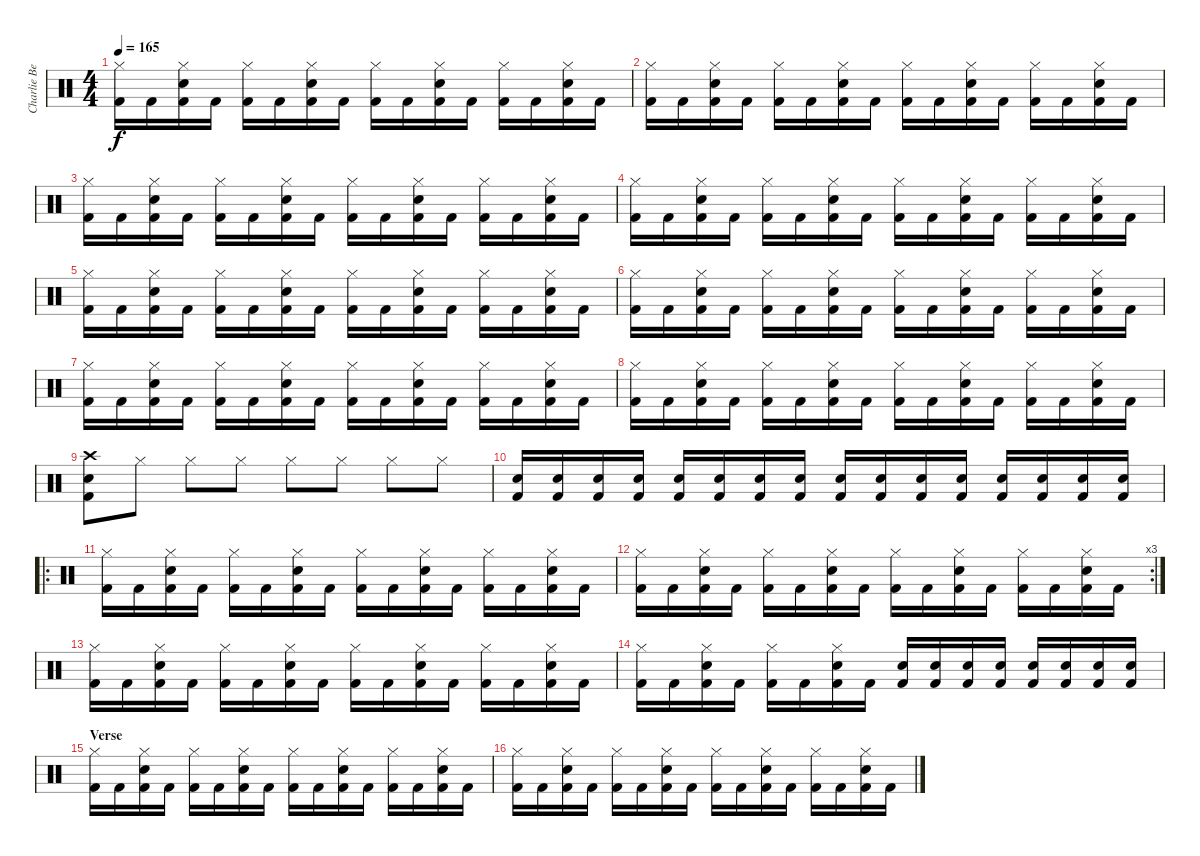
\track ("Charlie Benante" "Charlie Be") {instrument percussion}
\staff {score}
\articulation defaults
\ts (4 4)
\tempo 165
\clef neutral
\ks c
("Kick (hit) 2" "Hi-Hat (closed)").16{dy f} "Kick (hit) 2".16 ("Kick (hit) 2" "Hi-Hat (closed)" "Electric Snare (hit)").16 "Kick (hit) 2".16 ("Kick (hit) 2" "Hi-Hat (closed)").16 "Kick (hit) 2".16 ("Kick (hit) 2" "Hi-Hat (closed)" "Electric Snare (hit)").16 "Kick (hit) 2".16 ("Kick (hit) 2" "Hi-Hat (closed)").16 "Kick (hit) 2".16 ("Kick (hit) 2" "Hi-Hat (closed)" "Electric Snare (hit)").16 "Kick (hit) 2".16 ("Kick (hit) 2" "Hi-Hat (closed)").16 "Kick (hit) 2".16 ("Kick (hit) 2" "Hi-Hat (closed)" "Electric Snare (hit)").16 "Kick (hit) 2".16 |
("Kick (hit) 2" "Hi-Hat (closed)").16 "Kick (hit) 2".16 ("Kick (hit) 2" "Hi-Hat (closed)" "Electric Snare (hit)").16 "Kick (hit) 2".16 ("Kick (hit) 2" "Hi-Hat (closed)").16 "Kick (hit) 2".16 ("Kick (hit) 2" "Hi-Hat (closed)" "Electric Snare (hit)").16 "Kick (hit) 2".16 ("Kick (hit) 2" "Hi-Hat (closed)").16 "Kick (hit) 2".16 ("Kick (hit) 2" "Hi-Hat (closed)" "Electric Snare (hit)").16 "Kick (hit) 2".16 ("Kick (hit) 2" "Hi-Hat (closed)").16 "Kick (hit) 2".16 ("Kick (hit) 2" "Hi-Hat (closed)" "Electric Snare (hit)").16 "Kick (hit) 2".16 |
("Kick (hit) 2" "Hi-Hat (closed)").16 "Kick (hit) 2".16 ("Kick (hit) 2" "Hi-Hat (closed)" "Electric Snare (hit)").16 "Kick (hit) 2".16 ("Kick (hit) 2" "Hi-Hat (closed)").16 "Kick (hit) 2".16 ("Kick (hit) 2" "Hi-Hat (closed)" "Electric Snare (hit)").16 "Kick (hit) 2".16 ("Kick (hit) 2" "Hi-Hat (closed)").16 "Kick (hit) 2".16 ("Kick (hit) 2" "Hi-Hat (closed)" "Electric Snare (hit)").16 "Kick (hit) 2".16 ("Kick (hit) 2" "Hi-Hat (closed)").16 "Kick (hit) 2".16 ("Kick (hit) 2" "Hi-Hat (closed)" "Electric Snare (hit)").16 "Kick (hit) 2".16 |
("Kick (hit) 2" "Hi-Hat (closed)").16 "Kick (hit) 2".16 ("Kick (hit) 2" "Hi-Hat (closed)" "Electric Snare (hit)").16 "Kick (hit) 2".16 ("Kick (hit) 2" "Hi-Hat (closed)").16 "Kick (hit) 2".16 ("Kick (hit) 2" "Hi-Hat (closed)" "Electric Snare (hit)").16 "Kick (hit) 2".16 ("Kick (hit) 2" "Hi-Hat (closed)").16 "Kick (hit) 2".16 ("Kick (hit) 2" "Hi-Hat (closed)" "Electric Snare (hit)").16 "Kick (hit) 2".16 ("Kick (hit) 2" "Hi-Hat (closed)").16 "Kick (hit) 2".16 ("Kick (hit) 2" "Hi-Hat (closed)" "Electric Snare (hit)").16 "Kick (hit) 2".16 |
("Kick (hit) 2" "Hi-Hat (closed)").16 "Kick (hit) 2".16 ("Kick (hit) 2" "Hi-Hat (closed)" "Electric Snare (hit)").16 "Kick (hit) 2".16 ("Kick (hit) 2" "Hi-Hat (closed)").16 "Kick (hit) 2".16 ("Kick (hit) 2" "Hi-Hat (closed)" "Electric Snare (hit)").16 "Kick (hit) 2".16 ("Kick (hit) 2" "Hi-Hat (closed)").16 "Kick (hit) 2".16 ("Kick (hit) 2" "Hi-Hat (closed)" "Electric Snare (hit)").16 "Kick (hit) 2".16 ("Kick (hit) 2" "Hi-Hat (closed)").16 "Kick (hit) 2".16 ("Kick (hit) 2" "Hi-Hat (closed)" "Electric Snare (hit)").16 "Kick (hit) 2".16 |
("Kick (hit) 2" "Hi-Hat (closed)").16 "Kick (hit) 2".16 ("Kick (hit) 2" "Hi-Hat (closed)" "Electric Snare (hit)").16 "Kick (hit) 2".16 ("Kick (hit) 2" "Hi-Hat (closed)").16 "Kick (hit) 2".16 ("Kick (hit) 2" "Hi-Hat (closed)" "Electric Snare (hit)").16 "Kick (hit) 2".16 ("Kick (hit) 2" "Hi-Hat (closed)").16 "Kick (hit) 2".16 ("Kick (hit) 2" "Hi-Hat (closed)" "Electric Snare (hit)").16 "Kick (hit) 2".16 ("Kick (hit) 2" "Hi-Hat (closed)").16 "Kick (hit) 2".16 ("Kick (hit) 2" "Hi-Hat (closed)" "Electric Snare (hit)").16 "Kick (hit) 2".16 |
("Kick (hit) 2" "Hi-Hat (closed)").16 "Kick (hit) 2".16 ("Kick (hit) 2" "Hi-Hat (closed)" "Electric Snare (hit)").16 "Kick (hit) 2".16 ("Kick (hit) 2" "Hi-Hat (closed)").16 "Kick (hit) 2".16 ("Kick (hit) 2" "Hi-Hat (closed)" "Electric Snare (hit)").16 "Kick (hit) 2".16 ("Kick (hit) 2" "Hi-Hat (closed)").16 "Kick (hit) 2".16 ("Kick (hit) 2" "Hi-Hat (closed)" "Electric Snare (hit)").16 "Kick (hit) 2".16 ("Kick (hit) 2" "Hi-Hat (closed)").16 "Kick (hit) 2".16 ("Kick (hit) 2" "Hi-Hat (closed)" "Electric Snare (hit)").16 "Kick (hit) 2".16 |
("Kick (hit) 2" "Hi-Hat (closed)").16 "Kick (hit) 2".16 ("Kick (hit) 2" "Hi-Hat (closed)" "Electric Snare (hit)").16 "Kick (hit) 2".16 ("Kick (hit) 2" "Hi-Hat (closed)").16 "Kick (hit) 2".16 ("Kick (hit) 2" "Hi-Hat (closed)" "Electric Snare (hit)").16 "Kick (hit) 2".16 ("Kick (hit) 2" "Hi-Hat (closed)").16 "Kick (hit) 2".16 ("Kick (hit) 2" "Hi-Hat (closed)" "Electric Snare (hit)").16 "Kick (hit) 2".16 ("Kick (hit) 2" "Hi-Hat (closed)").16 "Kick (hit) 2".16 ("Kick (hit) 2" "Hi-Hat (closed)" "Electric Snare (hit)").16 "Kick (hit) 2".16 |
("Crash high (hit)" "Kick (hit) 2" "Electric Snare (hit)").8 "Hi-Hat (closed)".8 "Hi-Hat (closed)".8 "Hi-Hat (closed)".8 "Hi-Hat (closed)".8 "Hi-Hat (closed)".8 "Hi-Hat (closed)".8 "Hi-Hat (closed)".8 |
("Electric Snare (hit)" "Kick (hit) 2").16 ("Electric Snare (hit)" "Kick (hit) 2").16 ("Electric Snare (hit)" "Kick (hit) 2").16 ("Electric Snare (hit)" "Kick (hit) 2").16 ("Electric Snare (hit)" "Kick (hit) 2").16 ("Electric Snare (hit)" "Kick (hit) 2").16 ("Electric Snare (hit)" "Kick (hit) 2").16 ("Electric Snare (hit)" "Kick (hit) 2").16 ("Electric Snare (hit)" "Kick (hit) 2").16 ("Electric Snare (hit)" "Kick (hit) 2").16 ("Electric Snare (hit)" "Kick (hit) 2").16 ("Electric Snare (hit)" "Kick (hit) 2").16 ("Electric Snare (hit)" "Kick (hit) 2").16 ("Electric Snare (hit)" "Kick (hit) 2").16 ("Electric Snare (hit)" "Kick (hit) 2").16 ("Electric Snare (hit)" "Kick (hit) 2").16 |
\ro
("Kick (hit) 2" "Hi-Hat (closed)").16 "Kick (hit) 2".16 ("Kick (hit) 2" "Hi-Hat (closed)" "Electric Snare (hit)").16 "Kick (hit) 2".16 ("Kick (hit) 2" "Hi-Hat (closed)").16 "Kick (hit) 2".16 ("Kick (hit) 2" "Hi-Hat (closed)" "Electric Snare (hit)").16 "Kick (hit) 2".16 ("Kick (hit) 2" "Hi-Hat (closed)").16 "Kick (hit) 2".16 ("Kick (hit) 2" "Hi-Hat (closed)" "Electric Snare (hit)").16 "Kick (hit) 2".16 ("Kick (hit) 2" "Hi-Hat (closed)").16 "Kick (hit) 2".16 ("Kick (hit) 2" "Hi-Hat (closed)" "Electric Snare (hit)").16 "Kick (hit) 2".16 |
\rc 3
("Kick (hit) 2" "Hi-Hat (closed)").16 "Kick (hit) 2".16 ("Kick (hit) 2" "Hi-Hat (closed)" "Electric Snare (hit)").16 "Kick (hit) 2".16 ("Kick (hit) 2" "Hi-Hat (closed)").16 "Kick (hit) 2".16 ("Kick (hit) 2" "Hi-Hat (closed)" "Electric Snare (hit)").16 "Kick (hit) 2".16 ("Kick (hit) 2" "Hi-Hat (closed)").16 "Kick (hit) 2".16 ("Kick (hit) 2" "Hi-Hat (closed)" "Electric Snare (hit)").16 "Kick (hit) 2".16 ("Kick (hit) 2" "Hi-Hat (closed)").16 "Kick (hit) 2".16 ("Kick (hit) 2" "Hi-Hat (closed)" "Electric Snare (hit)").16 "Kick (hit) 2".16 |
("Kick (hit) 2" "Hi-Hat (closed)").16 "Kick (hit) 2".16 ("Kick (hit) 2" "Hi-Hat (closed)" "Electric Snare (hit)").16 "Kick (hit) 2".16 ("Kick (hit) 2" "Hi-Hat (closed)").16 "Kick (hit) 2".16 ("Kick (hit) 2" "Hi-Hat (closed)" "Electric Snare (hit)").16 "Kick (hit) 2".16 ("Kick (hit) 2" "Hi-Hat (closed)").16 "Kick (hit) 2".16 ("Kick (hit) 2" "Hi-Hat (closed)" "Electric Snare (hit)").16 "Kick (hit) 2".16 ("Kick (hit) 2" "Hi-Hat (closed)").16 "Kick (hit) 2".16 ("Kick (hit) 2" "Hi-Hat (closed)" "Electric Snare (hit)").16 "Kick (hit) 2".16 |
("Kick (hit) 2" "Hi-Hat (closed)").16 "Kick (hit) 2".16 ("Kick (hit) 2" "Hi-Hat (closed)" "Electric Snare (hit)").16 "Kick (hit) 2".16 ("Kick (hit) 2" "Hi-Hat (closed)").16 "Kick (hit) 2".16 ("Kick (hit) 2" "Hi-Hat (closed)" "Electric Snare (hit)").16 "Kick (hit) 2".16 ("Kick (hit) 2" "Electric Snare (hit)").16 ("Kick (hit) 2" "Electric Snare (hit)").16 ("Kick (hit) 2" "Electric Snare (hit)").16 ("Kick (hit) 2" "Electric Snare (hit)").16 ("Kick (hit) 2" "Electric Snare (hit)").16 ("Kick (hit) 2" "Electric Snare (hit)").16 ("Kick (hit) 2" "Electric Snare (hit)").16 ("Kick (hit) 2" "Electric Snare (hit)").16 |
\section ("" "Verse")
("Kick (hit) 2" "Hi-Hat (closed)").16 "Kick (hit) 2".16 ("Kick (hit) 2" "Hi-Hat (closed)" "Electric Snare (hit)").16 "Kick (hit) 2".16 ("Kick (hit) 2" "Hi-Hat (closed)").16 "Kick (hit) 2".16 ("Kick (hit) 2" "Hi-Hat (closed)" "Electric Snare (hit)").16 "Kick (hit) 2".16 ("Kick (hit) 2" "Hi-Hat (closed)").16 "Kick (hit) 2".16 ("Kick (hit) 2" "Hi-Hat (closed)" "Electric Snare (hit)").16 "Kick (hit) 2".16 ("Kick (hit) 2" "Hi-Hat (closed)").16 "Kick (hit) 2".16 ("Kick (hit) 2" "Hi-Hat (closed)" "Electric Snare (hit)").16 "Kick (hit) 2".16 |
("Kick (hit) 2" "Hi-Hat (closed)").16 "Kick (hit) 2".16 ("Kick (hit) 2" "Hi-Hat (closed)" "Electric Snare (hit)").16 "Kick (hit) 2".16 ("Kick (hit) 2" "Hi-Hat (closed)").16 "Kick (hit) 2".16 ("Kick (hit) 2" "Hi-Hat (closed)" "Electric Snare (hit)").16 "Kick (hit) 2".16 ("Kick (hit) 2" "Hi-Hat (closed)").16 "Kick (hit) 2".16 ("Kick (hit) 2" "Hi-Hat (closed)" "Electric Snare (hit)").16 "Kick (hit) 2".16 ("Kick (hit) 2" "Hi-Hat (closed)").16 "Kick (hit) 2".16 ("Kick (hit) 2" "Hi-Hat (closed)" "Electric Snare (hit)").16 "Kick (hit) 2".16
